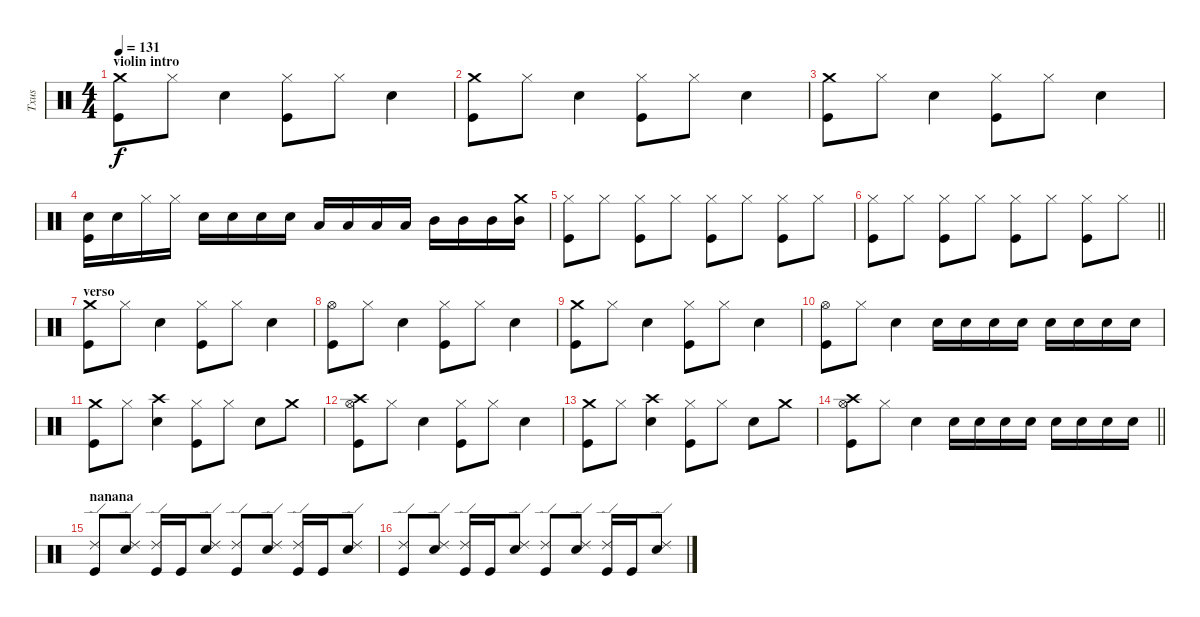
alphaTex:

\track ("Txus" "Txus") {instrument percussion}
\staff {score}
\articulation defaults
\ts (4 4)
\section ("" "violin intro")
\tempo 131
\clef neutral
\ks c
("Crash medium (hit)" "Kick (hit)").8{dy f} "Hi-Hat (closed)".8 "Electric Snare (hit)".4 ("Hi-Hat (closed)" "Kick (hit)").8 "Hi-Hat (closed)".8 "Electric Snare (hit)".4 |
("Crash medium (hit)" "Kick (hit)").8 "Hi-Hat (closed)".8 "Electric Snare (hit)".4 ("Hi-Hat (closed)" "Kick (hit)").8 "Hi-Hat (closed)".8 "Electric Snare (hit)".4 |
("Crash medium (hit)" "Kick (hit)").8 "Hi-Hat (closed)".8 "Electric Snare (hit)".4 ("Hi-Hat (closed)" "Kick (hit)").8 "Hi-Hat (closed)".8 "Electric Snare (hit)".4 |
("Electric Snare (hit)" "Kick (hit)").16 "Electric Snare (hit)".16 "Hi-Hat (closed)".16 "Hi-Hat (closed)".16 "Electric Snare (hit)".16 "Electric Snare (hit)".16 "Electric Snare (hit)".16 "Electric Snare (hit)".16 "Low Tom (hit)".16 "Low Tom (hit)".16 "Low Tom (hit)".16 "Low Tom (hit)".16 "Mid Tom (hit)".16 "Mid Tom (hit)".16 "Mid Tom (hit)".16 ("Crash medium (hit)" "Mid Tom (hit)").16 |
("Hi-Hat (closed)" "Kick (hit)").8 "Hi-Hat (closed)".8 ("Hi-Hat (closed)" "Kick (hit)").8 "Hi-Hat (closed)".8 ("Hi-Hat (closed)" "Kick (hit)").8 "Hi-Hat (closed)".8 ("Hi-Hat (closed)" "Kick (hit)").8 "Hi-Hat (closed)".8 |
\barLineRight lightlight
("Hi-Hat (closed)" "Kick (hit)").8 "Hi-Hat (closed)".8 ("Hi-Hat (closed)" "Kick (hit)").8 "Hi-Hat (closed)".8 ("Hi-Hat (closed)" "Kick (hit)").8 "Hi-Hat (closed)".8 ("Hi-Hat (closed)" "Kick (hit)").8 "Hi-Hat (closed)".8 |
\section ("" "verso")
("Crash medium (hit)" "Kick (hit)").8 "Hi-Hat (closed)".8 "Electric Snare (hit)".4 ("Hi-Hat (closed)" "Kick (hit)").8 "Hi-Hat (closed)".8 "Electric Snare (hit)".4 |
("Hi-Hat (open)" "Kick (hit)").8 "Hi-Hat (closed)".8 "Electric Snare (hit)".4 ("Hi-Hat (closed)" "Kick (hit)").8 "Hi-Hat (closed)".8 "Electric Snare (hit)".4 |
("Crash medium (hit)" "Kick (hit)").8 "Hi-Hat (closed)".8 "Electric Snare (hit)".4 ("Hi-Hat (closed)" "Kick (hit)").8 "Hi-Hat (closed)".8 "Electric Snare (hit)".4 |
("Hi-Hat (open)" "Kick (hit)").8 "Hi-Hat (closed)".8 "Electric Snare (hit)".4 "Electric Snare (hit)".16 "Electric Snare (hit)".16 "Electric Snare (hit)".16 "Electric Snare (hit)".16 "Electric Snare (hit)".16 "Electric Snare (hit)".16 "Electric Snare (hit)".16 "Electric Snare (hit)".16 |
("Crash medium (hit)" "Kick (hit)").8 "Hi-Hat (closed)".8 ("Crash high (hit)" "Electric Snare (hit)").4 ("Hi-Hat (closed)" "Kick (hit)").8 "Hi-Hat (closed)".8 "Electric Snare (hit)".8 "Crash medium (hit)".8 |
("Crash high (hit)" "Hi-Hat (open)" "Kick (hit)").8 "Hi-Hat (closed)".8 "Electric Snare (hit)".4 ("Hi-Hat (closed)" "Kick (hit)").8 "Hi-Hat (closed)".8 "Electric Snare (hit)".4 |
("Crash medium (hit)" "Kick (hit)").8 "Hi-Hat (closed)".8 ("Crash high (hit)" "Electric Snare (hit)").4 ("Hi-Hat (closed)" "Kick (hit)").8 "Hi-Hat (closed)".8 "Electric Snare (hit)".8 "Crash medium (hit)".8 |
\barLineRight lightlight
("Crash high (hit)" "Hi-Hat (open)" "Kick (hit)").8 "Hi-Hat (closed)".8 "Electric Snare (hit)".4 "Electric Snare (hit)".16 "Electric Snare (hit)".16 "Electric Snare (hit)".16 "Electric Snare (hit)".16 "Electric Snare (hit)".16 "Electric Snare (hit)".16 "Electric Snare (hit)".16 "Electric Snare (hit)".16 |
\section ("" "nanana")
("Ride (edge) 2" "Kick (hit)").8 ("Ride (edge) 2" "Electric Snare (hit)").8 ("Ride (edge) 2" "Kick (hit)").16 "Kick (hit)".16 ("Ride (edge) 2" "Electric Snare (hit)").8 ("Ride (edge) 2" "Kick (hit)").8 ("Ride (edge) 2" "Electric Snare (hit)").8 ("Ride (edge) 2" "Kick (hit)").16 "Kick (hit)".16 ("Ride (edge) 2" "Electric Snare (hit)").8 |
("Ride (edge) 2" "Kick (hit)").8 ("Ride (edge) 2" "Electric Snare (hit)").8 ("Ride (edge) 2" "Kick (hit)").16 "Kick (hit)".16 ("Ride (edge) 2" "Electric Snare (hit)").8 ("Ride (edge) 2" "Kick (hit)").8 ("Ride (edge) 2" "Electric Snare (hit)").8 ("Ride (edge) 2" "Kick (hit)").16 "Kick (hit)".16 ("Ride (edge) 2" "Electric Snare (hit)").8
